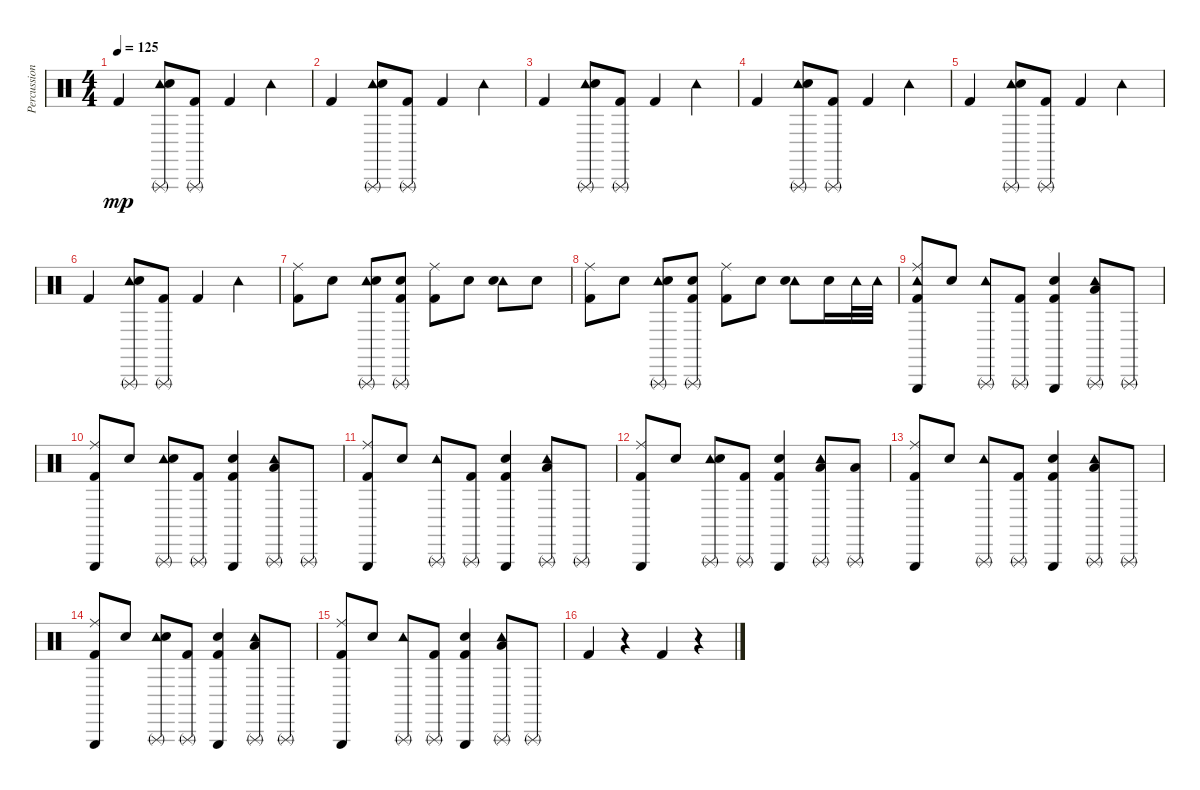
\track ("Percussion" "Percussion") {instrument percussion}
\staff {score}
\articulation defaults
\ts (4 4)
\tempo 125
\clef neutral
\ks c "Kick (hit) 2".4{dy mp}
("Triangle (rnute)" "Tambourine (hit)" "Snare (hit) 2").8 ("Triangle (rnute)" "Kick (hit) 2").8 "Kick (hit) 2".4 "Tambourine (hit)".4 |
"Kick (hit) 2".4 ("Triangle (rnute)" "Tambourine (hit)" "Snare (hit) 2").8 ("Triangle (rnute)" "Kick (hit) 2").8 "Kick (hit) 2".4 "Tambourine (hit)".4 |
"Kick (hit) 2".4 ("Triangle (rnute)" "Tambourine (hit)" "Snare (hit) 2").8 ("Triangle (rnute)" "Kick (hit) 2").8 "Kick (hit) 2".4 "Tambourine (hit)".4 |
"Kick (hit) 2".4 ("Triangle (rnute)" "Tambourine (hit)" "Snare (hit) 2").8 ("Triangle (rnute)" "Kick (hit) 2").8 "Kick (hit) 2".4 "Tambourine (hit)".4 |
"Kick (hit) 2".4 ("Triangle (rnute)" "Tambourine (hit)" "Snare (hit) 2").8 ("Triangle (rnute)" "Kick (hit) 2").8 "Kick (hit) 2".4 "Tambourine (hit)".4 |
"Kick (hit) 2".4 ("Triangle (rnute)" "Tambourine (hit)" "Snare (hit) 2").8 ("Triangle (rnute)" "Kick (hit) 2").8 "Kick (hit) 2".4 "Tambourine (hit)".4 |
("Ride (middle)" "Kick (hit) 2").8 "Snare (hit) 2".8 ("Triangle (rnute)" "Tambourine (hit)" "Snare (hit) 2").8 ("Triangle (rnute)" "Kick (hit) 2" "Snare (hit) 2").8 ("Ride (middle)" "Kick (hit) 2").8 "Snare (hit) 2".8 ("Tambourine (hit)" "Snare (hit) 2").8 "Snare (hit) 2".8 |
("Ride (middle)" "Kick (hit) 2").8 "Snare (hit) 2".8 ("Triangle (rnute)" "Tambourine (hit)" "Snare (hit) 2").8 ("Triangle (rnute)" "Kick (hit) 2" "Snare (hit) 2").8 ("Ride (middle)" "Kick (hit) 2").8 "Snare (hit) 2".8 ("Tambourine (hit)" "Snare (hit) 2").8 "Snare (hit) 2".16 "Tambourine (hit)".32 "Tambourine (hit)".32 |
("Triangle (hit)" "Tambourine (hit)" "Ride (middle)" "Kick (hit) 2").8 "Snare (hit) 2".8 ("Triangle (rnute)" "Tambourine (hit)").8 ("Triangle (rnute)" "Kick (hit) 2").8 ("Triangle (hit)" "Kick (hit) 2" "Snare (hit) 2").4 ("Tambourine (hit)" "Low Tom (hit)" "Triangle (rnute)").8 "Triangle (rnute)".8 |
("Triangle (hit)" "Ride (middle)" "Kick (hit) 2").8 "Snare (hit) 2".8 ("Triangle (rnute)" "Tambourine (hit)" "Snare (hit) 2").8 ("Triangle (rnute)" "Kick (hit) 2").8 ("Triangle (hit)" "Kick (hit) 2" "Snare (hit) 2").4 ("Tambourine (hit)" "Low Tom (hit)" "Triangle (rnute)").8 "Triangle (rnute)".8 |
("Triangle (hit)" "Ride (middle)" "Kick (hit) 2").8 "Snare (hit) 2".8 ("Triangle (rnute)" "Tambourine (hit)").8 ("Triangle (rnute)" "Kick (hit) 2").8 ("Triangle (hit)" "Kick (hit) 2" "Snare (hit) 2").4 ("Tambourine (hit)" "Low Tom (hit)" "Triangle (rnute)").8 "Triangle (rnute)".8 |
("Triangle (hit)" "Ride (middle)" "Kick (hit) 2").8 "Snare (hit) 2".8 ("Triangle (rnute)" "Tambourine (hit)" "Snare (hit) 2").8 ("Triangle (rnute)" "Kick (hit) 2").8 ("Triangle (hit)" "Kick (hit) 2" "Snare (hit) 2").4 ("Tambourine (hit)" "Triangle (rnute)" "Low Tom (hit)").8 ("Low Tom (hit)" "Triangle (rnute)").8 |
("Triangle (hit)" "Ride (middle)" "Kick (hit) 2").8 "Snare (hit) 2".8 ("Triangle (rnute)" "Tambourine (hit)").8 ("Triangle (rnute)" "Kick (hit) 2").8 ("Triangle (hit)" "Kick (hit) 2" "Snare (hit) 2").4 ("Tambourine (hit)" "Low Tom (hit)" "Triangle (rnute)").8 "Triangle (rnute)".8 |
("Triangle (hit)" "Ride (middle)" "Kick (hit) 2").8 "Snare (hit) 2".8 ("Triangle (rnute)" "Tambourine (hit)" "Snare (hit) 2").8 ("Triangle (rnute)" "Kick (hit) 2").8 ("Triangle (hit)" "Kick (hit) 2" "Snare (hit) 2").4 ("Tambourine (hit)" "Low Tom (hit)" "Triangle (rnute)").8 "Triangle (rnute)".8 |
("Triangle (hit)" "Ride (middle)" "Kick (hit) 2").8 "Snare (hit) 2".8 ("Triangle (rnute)" "Tambourine (hit)").8 ("Triangle (rnute)" "Kick (hit) 2").8 ("Triangle (hit)" "Kick (hit) 2" "Snare (hit) 2").4 ("Tambourine (hit)" "Low Tom (hit)" "Triangle (rnute)").8 "Triangle (rnute)".8 |
"Kick (hit) 2".4 r.4 "Kick (hit) 2".4 r.4
